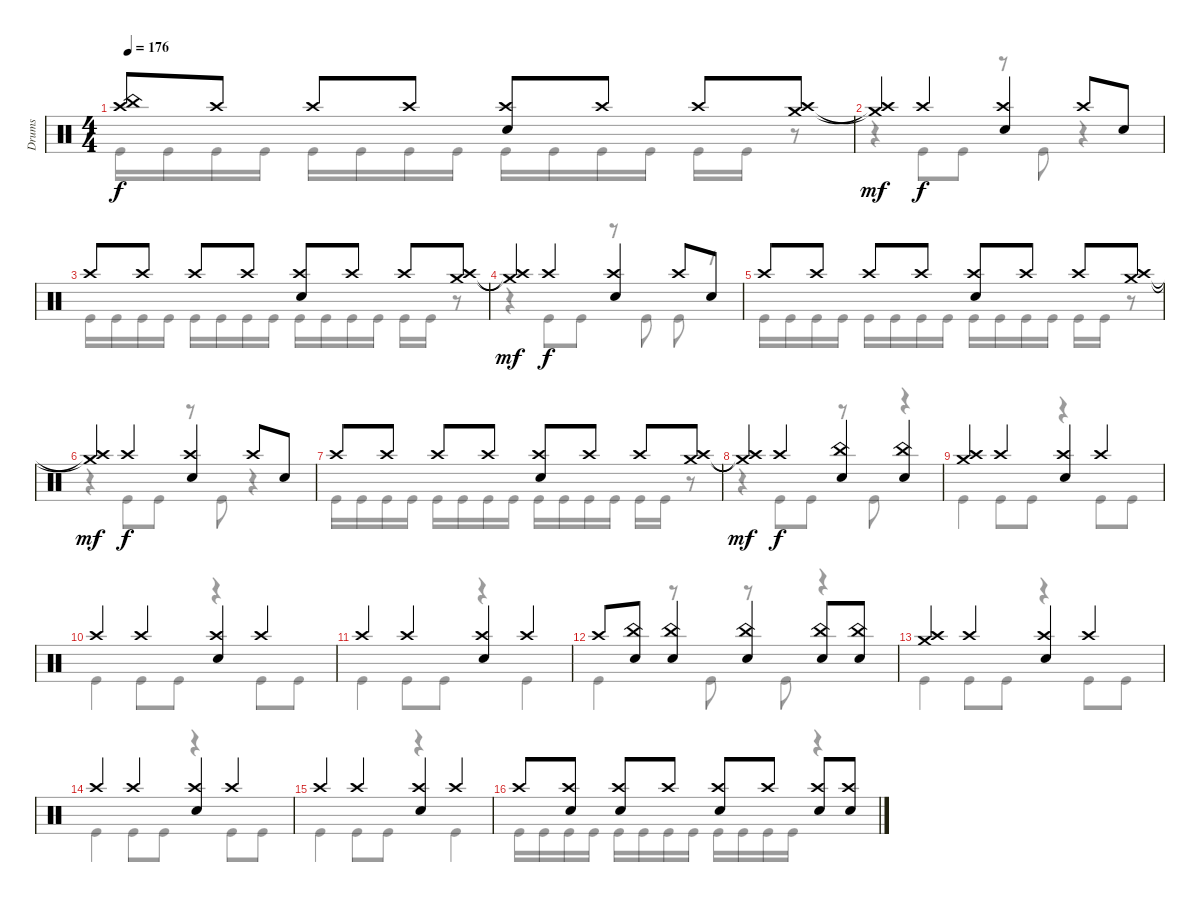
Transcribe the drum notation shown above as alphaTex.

\track ("Drums" "Drums") {instrument percussion}
\staff {score}
\articulation defaults
\voice
\ts (4 4)
\tempo 176
\clef neutral
\ks c
("Crash high (hit)" "China (hit)").8{dy f} "Crash high (hit)".8 "Crash high (hit)".8 "Crash high (hit)".8 ("Snare (hit) 2" "Crash high (hit)").8 "Crash high (hit)".8 "Crash high (hit)".8 ("Crash high (hit)" "Crash medium (hit)").8 |
("Crash medium (hit)"{t} "Crash high (hit)"{t}).4{dy mf} "Crash high (hit)".4{dy f} ("Snare (hit) 2" "Crash high (hit)").4 "Crash high (hit)".8 "Snare (hit) 2".8 |
"Crash high (hit)".8 "Crash high (hit)".8 "Crash high (hit)".8 "Crash high (hit)".8 ("Snare (hit) 2" "Crash high (hit)").8 "Crash high (hit)".8 "Crash high (hit)".8 ("Crash high (hit)" "Crash medium (hit)").8 |
("Crash medium (hit)"{t} "Crash high (hit)"{t}).4{dy mf} "Crash high (hit)".4{dy f} ("Snare (hit) 2" "Crash high (hit)").4 "Crash high (hit)".8 "Snare (hit) 2".8 |
"Crash high (hit)".8 "Crash high (hit)".8 "Crash high (hit)".8 "Crash high (hit)".8 ("Snare (hit) 2" "Crash high (hit)").8 "Crash high (hit)".8 "Crash high (hit)".8 ("Crash high (hit)" "Crash medium (hit)").8 |
("Crash medium (hit)"{t} "Crash high (hit)"{t}).4{dy mf} "Crash high (hit)".4{dy f} ("Snare (hit) 2" "Crash high (hit)").4 "Crash high (hit)".8 "Snare (hit) 2".8 |
"Crash high (hit)".8 "Crash high (hit)".8 "Crash high (hit)".8 "Crash high (hit)".8 ("Snare (hit) 2" "Crash high (hit)").8 "Crash high (hit)".8 "Crash high (hit)".8 ("Crash high (hit)" "Crash medium (hit)").8 |
("Crash medium (hit)"{t} "Crash high (hit)"{t}).4{dy mf} "Crash high (hit)".4{dy f} ("Snare (hit) 2" "China (hit)").4 ("China (hit)" "Snare (hit) 2").4 |
("Crash medium (hit)" "Crash high (hit)").4 "Crash high (hit)".4 ("Crash high (hit)" "Snare (hit) 2").4 "Crash high (hit)".4 |
"Crash high (hit)".4 "Crash high (hit)".4 ("Crash high (hit)" "Snare (hit) 2").4 "Crash high (hit)".4 |
"Crash high (hit)".4 "Crash high (hit)".4 ("Crash high (hit)" "Snare (hit) 2").4 "Crash high (hit)".4 |
"Crash high (hit)".8 ("Snare (hit) 2" "China (hit)").8 ("Snare (hit) 2" "China (hit)").4 ("Snare (hit) 2" "China (hit)").4 ("Snare (hit) 2" "China (hit)").8 ("Snare (hit) 2" "China (hit)").8 |
("Crash medium (hit)" "Crash high (hit)").4 "Crash high (hit)".4 ("Crash high (hit)" "Snare (hit) 2").4 "Crash high (hit)".4 |
"Crash high (hit)".4 "Crash high (hit)".4 ("Crash high (hit)" "Snare (hit) 2").4 "Crash high (hit)".4 |
"Crash high (hit)".4 "Crash high (hit)".4 ("Crash high (hit)" "Snare (hit) 2").4 "Crash high (hit)".4 |
"Crash high (hit)".8 ("Snare (hit) 2" "Crash high (hit)").8 ("Snare (hit) 2" "Crash high (hit)").8 "Crash high (hit)".8 ("Snare (hit) 2" "Crash high (hit)").8 "Crash high (hit)".8 ("Snare (hit) 2" "Crash high (hit)").8 ("Snare (hit) 2" "Crash high (hit)").8
\voice
\clef neutral
\ottava regular
\simile none
\ks c "Kick (hit)".16{dy f} "Kick (hit)".16 "Kick (hit)".16 "Kick (hit)".16 "Kick (hit)".16 "Kick (hit)".16 "Kick (hit)".16 "Kick (hit)".16 "Kick (hit)".16 "Kick (hit)".16 "Kick (hit)".16 "Kick (hit)".16 "Kick (hit)".16 "Kick (hit)".16
r.8 |
r.4 "Kick (hit)".8 "Kick (hit)".8 r.8 "Kick (hit)".8 r.4 |
"Kick (hit)".16 "Kick (hit)".16 "Kick (hit)".16 "Kick (hit)".16 "Kick (hit)".16 "Kick (hit)".16 "Kick (hit)".16 "Kick (hit)".16 "Kick (hit)".16 "Kick (hit)".16 "Kick (hit)".16 "Kick (hit)".16 "Kick (hit)".16 "Kick (hit)".16 r.8 |
r.4 "Kick (hit)".8 "Kick (hit)".8 r.8 "Kick (hit)".8 "Kick (hit)".8 r.8 |
"Kick (hit)".16 "Kick (hit)".16 "Kick (hit)".16 "Kick (hit)".16 "Kick (hit)".16 "Kick (hit)".16 "Kick (hit)".16 "Kick (hit)".16 "Kick (hit)".16 "Kick (hit)".16 "Kick (hit)".16 "Kick (hit)".16 "Kick (hit)".16 "Kick (hit)".16 r.8 |
r.4 "Kick (hit)".8 "Kick (hit)".8 r.8 "Kick (hit)".8 r.4 |
"Kick (hit)".16 "Kick (hit)".16 "Kick (hit)".16 "Kick (hit)".16 "Kick (hit)".16 "Kick (hit)".16 "Kick (hit)".16 "Kick (hit)".16 "Kick (hit)".16 "Kick (hit)".16 "Kick (hit)".16 "Kick (hit)".16 "Kick (hit)".16 "Kick (hit)".16 r.8 |
r.4 "Kick (hit)".8 "Kick (hit)".8 r.8 "Kick (hit)".8 r.4 |
"Kick (hit)".4 "Kick (hit)".8 "Kick (hit)".8 r.4 "Kick (hit)".8 "Kick (hit)".8 |
"Kick (hit)".4 "Kick (hit)".8 "Kick (hit)".8 r.4 "Kick (hit)".8 "Kick (hit)".8 |
"Kick (hit)".4 "Kick (hit)".8 "Kick (hit)".8 r.4 "Kick (hit)".4 |
"Kick (hit)".4 r.8 "Kick (hit)".8 r.8 "Kick (hit)".8 r.4 |
"Kick (hit)".4 "Kick (hit)".8 "Kick (hit)".8 r.4 "Kick (hit)".8 "Kick (hit)".8 |
"Kick (hit)".4 "Kick (hit)".8 "Kick (hit)".8 r.4 "Kick (hit)".8 "Kick (hit)".8 |
"Kick (hit)".4 "Kick (hit)".8 "Kick (hit)".8 r.4 "Kick (hit)".4 |
"Kick (hit)".16 "Kick (hit)".16 "Kick (hit)".16 "Kick (hit)".16 "Kick (hit)".16 "Kick (hit)".16 "Kick (hit)".16 "Kick (hit)".16 "Kick (hit)".16 "Kick (hit)".16 "Kick (hit)".16 "Kick (hit)".16 r.4
